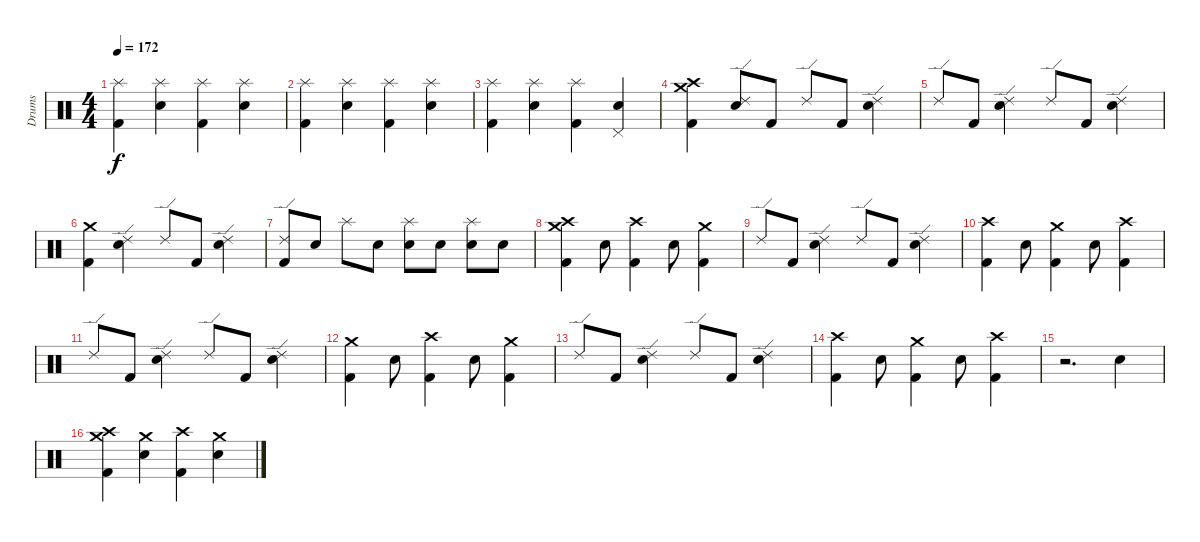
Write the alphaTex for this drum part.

\track ("Drums" "Drums") {instrument percussion}
\staff {score}
\articulation defaults
\ts (4 4)
\tempo 172
\clef neutral
\ks c
("Splash (hit)" "Kick (hit) 2").4{dy f} ("Splash (hit)" "Snare (hit) 2").4 ("Splash (hit)" "Kick (hit) 2").4 ("Splash (hit)" "Snare (hit) 2").4 |
("Splash (hit)" "Kick (hit) 2").4 ("Splash (hit)" "Snare (hit) 2").4 ("Splash (hit)" "Kick (hit) 2").4 ("Splash (hit)" "Snare (hit) 2").4 |
("Splash (hit)" "Kick (hit) 2").4 ("Splash (hit)" "Snare (hit) 2").4 ("Splash (hit)" "Kick (hit) 2").4 ("Pedal Hi-Hat (hit)" "Snare (hit) 2").4 |
("Crash high (hit)" "Crash medium (hit)" "Kick (hit) 2").4 ("Snare (hit) 2" "Ride (edge) 2").8 "Kick (hit) 2".8 "Ride (edge) 2".8 "Kick (hit) 2".8 ("Ride (edge) 2" "Snare (hit) 2").4 |
"Ride (edge) 2".8 "Kick (hit) 2".8 ("Ride (edge) 2" "Snare (hit) 2").4 "Ride (edge) 2".8 "Kick (hit) 2".8 ("Ride (edge) 2" "Snare (hit) 2").4 |
("Kick (hit) 2" "Crash medium (hit)").4 ("Ride (edge) 2" "Snare (hit) 2").4 "Ride (edge) 2".8 "Kick (hit) 2".8 ("Ride (edge) 2" "Snare (hit) 2").4 |
("Ride (edge) 2" "Kick (hit) 2").8 "Snare (hit) 2".8 "Splash (hit)".8 "Snare (hit) 2".8 ("Splash (hit)" "Snare (hit) 2").8 "Snare (hit) 2".8 ("Splash (hit)" "Snare (hit) 2").8 "Snare (hit) 2".8 |
("Crash high (hit)" "Crash medium (hit)" "Kick (hit) 2").4 "Snare (hit) 2".8 ("Crash high (hit)" "Kick (hit) 2").4 "Snare (hit) 2".8 ("Crash medium (hit)" "Kick (hit) 2").4 |
"Ride (edge) 2".8 "Kick (hit) 2".8 ("Ride (edge) 2" "Snare (hit) 2").4 "Ride (edge) 2".8 "Kick (hit) 2".8 ("Ride (edge) 2" "Snare (hit) 2").4 |
("Crash high (hit)" "Kick (hit) 2").4 "Snare (hit) 2".8 ("Crash medium (hit)" "Kick (hit) 2").4 "Snare (hit) 2".8 ("Crash high (hit)" "Kick (hit) 2").4 |
"Ride (edge) 2".8 "Kick (hit) 2".8 ("Ride (edge) 2" "Snare (hit) 2").4 "Ride (edge) 2".8 "Kick (hit) 2".8 ("Ride (edge) 2" "Snare (hit) 2").4 |
("Crash medium (hit)" "Kick (hit) 2").4 "Snare (hit) 2".8 ("Crash high (hit)" "Kick (hit) 2").4 "Snare (hit) 2".8 ("Crash medium (hit)" "Kick (hit) 2").4 |
"Ride (edge) 2".8 "Kick (hit) 2".8 ("Ride (edge) 2" "Snare (hit) 2").4 "Ride (edge) 2".8 "Kick (hit) 2".8 ("Ride (edge) 2" "Snare (hit) 2").4 |
("Crash high (hit)" "Kick (hit) 2").4 "Snare (hit) 2".8 ("Crash medium (hit)" "Kick (hit) 2").4 "Snare (hit) 2".8 ("Crash high (hit)" "Kick (hit) 2").4 |
r.2{d} "Snare (hit) 2".4 |
("Crash high (hit)" "Crash medium (hit)" "Kick (hit) 2").4 ("Crash medium (hit)" "Snare (hit) 2").4 ("Crash high (hit)" "Kick (hit) 2").4 ("Crash medium (hit)" "Snare (hit) 2").4
